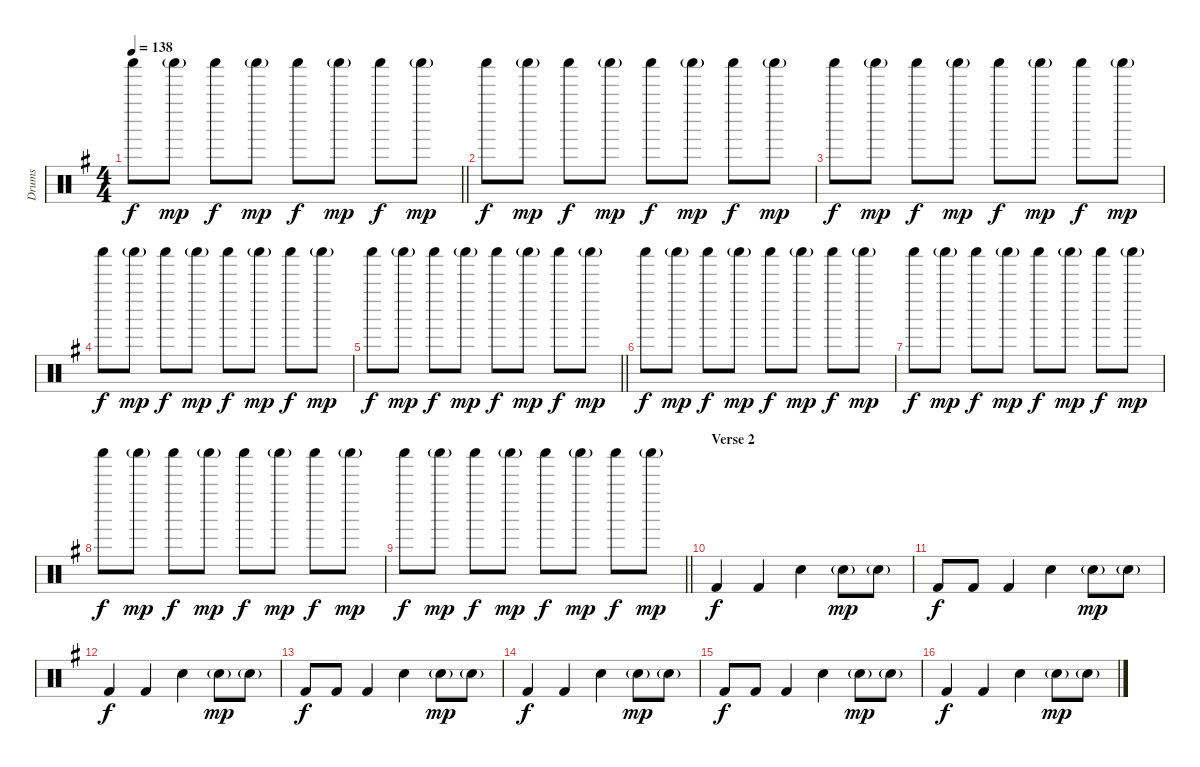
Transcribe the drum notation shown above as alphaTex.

\track ("Drums" "Drums") {instrument percussion}
\staff {score}
\articulation defaults
\ts (4 4)
\tempo 138
\clef neutral
\barLineRight lightlight
\ks g "Shaker (hit)".8{dy f} "Shaker (hit)"{g}.8{dy mp} "Shaker (hit)".8{dy f} "Shaker (hit)"{g}.8{dy mp} "Shaker (hit)".8{dy f} "Shaker (hit)"{g}.8{dy mp} "Shaker (hit)".8{dy f} "Shaker (hit)"{g}.8{dy mp}
|
"Shaker (hit)".8{dy f} "Shaker (hit)"{g}.8{dy mp} "Shaker (hit)".8{dy f} "Shaker (hit)"{g}.8{dy mp} "Shaker (hit)".8{dy f} "Shaker (hit)"{g}.8{dy mp} "Shaker (hit)".8{dy f} "Shaker (hit)"{g}.8{dy mp} |
"Shaker (hit)".8{dy f} "Shaker (hit)"{g}.8{dy mp} "Shaker (hit)".8{dy f} "Shaker (hit)"{g}.8{dy mp} "Shaker (hit)".8{dy f} "Shaker (hit)"{g}.8{dy mp} "Shaker (hit)".8{dy f} "Shaker (hit)"{g}.8{dy mp} |
"Shaker (hit)".8{dy f} "Shaker (hit)"{g}.8{dy mp} "Shaker (hit)".8{dy f} "Shaker (hit)"{g}.8{dy mp} "Shaker (hit)".8{dy f} "Shaker (hit)"{g}.8{dy mp} "Shaker (hit)".8{dy f} "Shaker (hit)"{g}.8{dy mp} |
\barLineRight lightlight "Shaker (hit)".8{dy f} "Shaker (hit)"{g}.8{dy mp} "Shaker (hit)".8{dy f} "Shaker (hit)"{g}.8{dy mp} "Shaker (hit)".8{dy f} "Shaker (hit)"{g}.8{dy mp} "Shaker (hit)".8{dy f} "Shaker (hit)"{g}.8{dy mp}
|
"Shaker (hit)".8{dy f} "Shaker (hit)"{g}.8{dy mp} "Shaker (hit)".8{dy f} "Shaker (hit)"{g}.8{dy mp} "Shaker (hit)".8{dy f} "Shaker (hit)"{g}.8{dy mp} "Shaker (hit)".8{dy f} "Shaker (hit)"{g}.8{dy mp} |
"Shaker (hit)".8{dy f} "Shaker (hit)"{g}.8{dy mp} "Shaker (hit)".8{dy f} "Shaker (hit)"{g}.8{dy mp} "Shaker (hit)".8{dy f} "Shaker (hit)"{g}.8{dy mp} "Shaker (hit)".8{dy f} "Shaker (hit)"{g}.8{dy mp} |
"Shaker (hit)".8{dy f} "Shaker (hit)"{g}.8{dy mp} "Shaker (hit)".8{dy f} "Shaker (hit)"{g}.8{dy mp} "Shaker (hit)".8{dy f} "Shaker (hit)"{g}.8{dy mp} "Shaker (hit)".8{dy f} "Shaker (hit)"{g}.8{dy mp} |
\barLineRight lightlight "Shaker (hit)".8{dy f} "Shaker (hit)"{g}.8{dy mp} "Shaker (hit)".8{dy f} "Shaker (hit)"{g}.8{dy mp} "Shaker (hit)".8{dy f} "Shaker (hit)"{g}.8{dy mp} "Shaker (hit)".8{dy f} "Shaker (hit)"{g}.8{dy mp}
|
\section ("" "Verse 2")
"Kick (hit) 2".4{dy f} "Kick (hit) 2".4 "Snare (hit) 2".4 "Snare (hit) 2"{g}.8{dy mp} "Snare (hit) 2"{g}.8 |
"Kick (hit) 2".8{dy f} "Kick (hit) 2".8 "Kick (hit) 2".4 "Snare (hit) 2".4 "Snare (hit) 2"{g}.8{dy mp} "Snare (hit) 2"{g}.8 |
"Kick (hit) 2".4{dy f} "Kick (hit) 2".4 "Snare (hit) 2".4 "Snare (hit) 2"{g}.8{dy mp} "Snare (hit) 2"{g}.8 |
"Kick (hit) 2".8{dy f} "Kick (hit) 2".8 "Kick (hit) 2".4 "Snare (hit) 2".4 "Snare (hit) 2"{g}.8{dy mp} "Snare (hit) 2"{g}.8 |
"Kick (hit) 2".4{dy f} "Kick (hit) 2".4 "Snare (hit) 2".4 "Snare (hit) 2"{g}.8{dy mp} "Snare (hit) 2"{g}.8 |
"Kick (hit) 2".8{dy f} "Kick (hit) 2".8 "Kick (hit) 2".4 "Snare (hit) 2".4 "Snare (hit) 2"{g}.8{dy mp} "Snare (hit) 2"{g}.8 |
"Kick (hit) 2".4{dy f} "Kick (hit) 2".4 "Snare (hit) 2".4 "Snare (hit) 2"{g}.8{dy mp} "Snare (hit) 2"{g}.8
